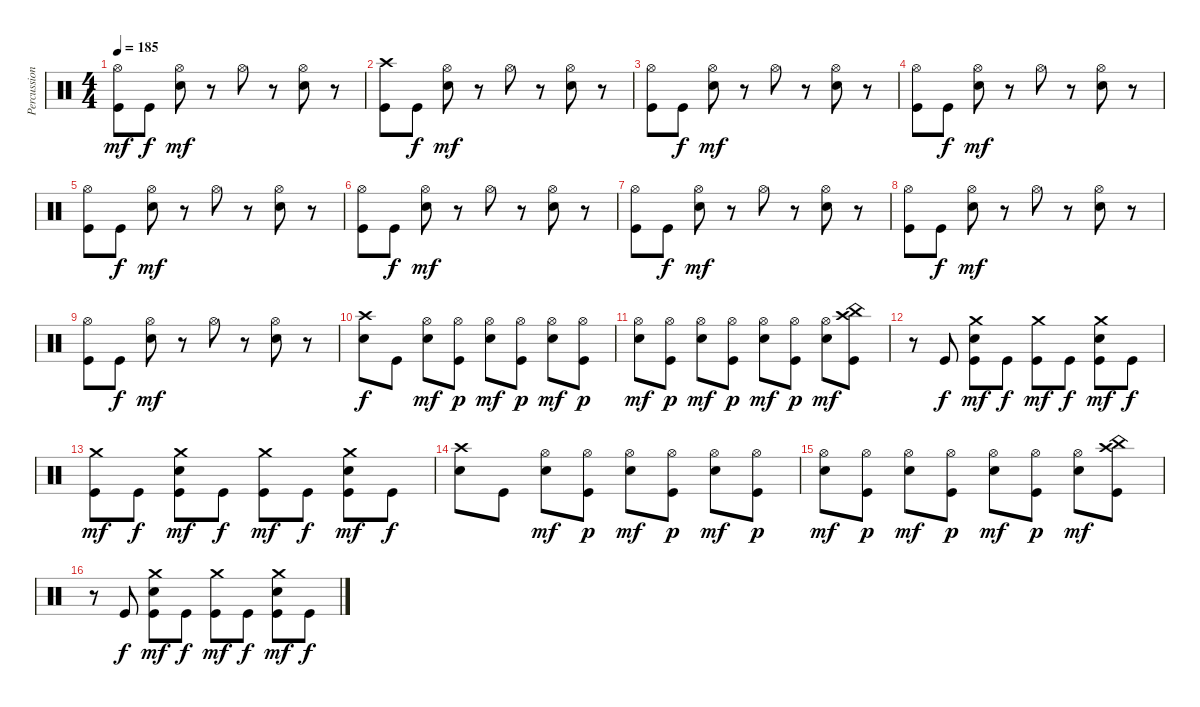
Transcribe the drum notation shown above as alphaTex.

\track ("Percussions" "Percussion") {instrument percussion}
\staff {score}
\articulation defaults
\ts (4 4)
\tempo 185
\clef neutral
\ks c
("Kick (hit)" "Hi-Hat (open)").8{dy mf} "Kick (hit)".8{dy f} ("Electric Snare (hit)" "Hi-Hat (open)").8{dy mf} r.8 "Hi-Hat (open)".8 r.8 ("Electric Snare (hit)" "Hi-Hat (open)").8 r.8 |
("Kick (hit)" "Crash high (hit)").8 "Kick (hit)".8{dy f} ("Electric Snare (hit)" "Hi-Hat (open)").8{dy mf} r.8 "Hi-Hat (open)".8 r.8 ("Electric Snare (hit)" "Hi-Hat (open)").8 r.8 |
("Kick (hit)" "Hi-Hat (open)").8 "Kick (hit)".8{dy f} ("Electric Snare (hit)" "Hi-Hat (open)").8{dy mf} r.8 "Hi-Hat (open)".8 r.8 ("Electric Snare (hit)" "Hi-Hat (open)").8 r.8 |
("Kick (hit)" "Hi-Hat (open)").8 "Kick (hit)".8{dy f} ("Electric Snare (hit)" "Hi-Hat (open)").8{dy mf} r.8 "Hi-Hat (open)".8 r.8 ("Electric Snare (hit)" "Hi-Hat (open)").8 r.8 |
("Kick (hit)" "Hi-Hat (open)").8 "Kick (hit)".8{dy f} ("Electric Snare (hit)" "Hi-Hat (open)").8{dy mf} r.8 "Hi-Hat (open)".8 r.8 ("Electric Snare (hit)" "Hi-Hat (open)").8 r.8 |
("Kick (hit)" "Hi-Hat (open)").8 "Kick (hit)".8{dy f} ("Electric Snare (hit)" "Hi-Hat (open)").8{dy mf} r.8 "Hi-Hat (open)".8 r.8 ("Electric Snare (hit)" "Hi-Hat (open)").8 r.8 |
("Kick (hit)" "Hi-Hat (open)").8 "Kick (hit)".8{dy f} ("Electric Snare (hit)" "Hi-Hat (open)").8{dy mf} r.8 "Hi-Hat (open)".8 r.8 ("Electric Snare (hit)" "Hi-Hat (open)").8 r.8 |
("Kick (hit)" "Hi-Hat (open)").8 "Kick (hit)".8{dy f} ("Electric Snare (hit)" "Hi-Hat (open)").8{dy mf} r.8 "Hi-Hat (open)".8 r.8 ("Electric Snare (hit)" "Hi-Hat (open)").8 r.8 |
("Kick (hit)" "Hi-Hat (open)").8 "Kick (hit)".8{dy f} ("Electric Snare (hit)" "Hi-Hat (open)").8{dy mf} r.8 "Hi-Hat (open)".8 r.8 ("Electric Snare (hit)" "Hi-Hat (open)").8 r.8 |
("Electric Snare (hit)" "Crash high (hit)").8{dy f} "Kick (hit)".8 ("Electric Snare (hit)" "Hi-Hat (open)").8{dy mf} ("Kick (hit)" "Hi-Hat (open)").8{dy p} ("Electric Snare (hit)" "Hi-Hat (open)").8{dy mf} ("Kick (hit)" "Hi-Hat (open)").8{dy p} ("Electric Snare (hit)" "Hi-Hat (open)").8{dy mf} ("Kick (hit)" "Hi-Hat (open)").8{dy p} |
("Electric Snare (hit)" "Hi-Hat (open)").8{dy mf} ("Kick (hit)" "Hi-Hat (open)").8{dy p} ("Electric Snare (hit)" "Hi-Hat (open)").8{dy mf} ("Kick (hit)" "Hi-Hat (open)").8{dy p} ("Electric Snare (hit)" "Hi-Hat (open)").8{dy mf} ("Kick (hit)" "Hi-Hat (open)").8{dy p} ("Electric Snare (hit)" "Hi-Hat (open)").8{dy mf} ("Kick (hit)" "China (hit)" "Crash high (hit)").8 |
r.8 "Kick (hit)".8{dy f} ("Kick (hit)" "Electric Snare (hit)" "Crash medium (hit)").8{dy mf} "Kick (hit)".8{dy f} ("Kick (hit)" "Crash medium (hit)").8{dy mf} "Kick (hit)".8{dy f} ("Kick (hit)" "Electric Snare (hit)" "Crash medium (hit)").8{dy mf} "Kick (hit)".8{dy f} |
("Kick (hit)" "Crash medium (hit)").8{dy mf} "Kick (hit)".8{dy f} ("Kick (hit)" "Electric Snare (hit)" "Crash medium (hit)").8{dy mf} "Kick (hit)".8{dy f} ("Kick (hit)" "Crash medium (hit)").8{dy mf} "Kick (hit)".8{dy f} ("Kick (hit)" "Electric Snare (hit)" "Crash medium (hit)").8{dy mf} "Kick (hit)".8{dy f} |
("Electric Snare (hit)" "Crash high (hit)").8 "Kick (hit)".8 ("Electric Snare (hit)" "Hi-Hat (open)").8{dy mf} ("Kick (hit)" "Hi-Hat (open)").8{dy p} ("Electric Snare (hit)" "Hi-Hat (open)").8{dy mf} ("Kick (hit)" "Hi-Hat (open)").8{dy p} ("Electric Snare (hit)" "Hi-Hat (open)").8{dy mf} ("Kick (hit)" "Hi-Hat (open)").8{dy p} |
("Electric Snare (hit)" "Hi-Hat (open)").8{dy mf} ("Kick (hit)" "Hi-Hat (open)").8{dy p} ("Electric Snare (hit)" "Hi-Hat (open)").8{dy mf} ("Kick (hit)" "Hi-Hat (open)").8{dy p} ("Electric Snare (hit)" "Hi-Hat (open)").8{dy mf} ("Kick (hit)" "Hi-Hat (open)").8{dy p} ("Electric Snare (hit)" "Hi-Hat (open)").8{dy mf} ("Kick (hit)" "China (hit)" "Crash high (hit)").8 |
r.8 "Kick (hit)".8{dy f} ("Kick (hit)" "Electric Snare (hit)" "Crash medium (hit)").8{dy mf} "Kick (hit)".8{dy f} ("Kick (hit)" "Crash medium (hit)").8{dy mf} "Kick (hit)".8{dy f} ("Kick (hit)" "Electric Snare (hit)" "Crash medium (hit)").8{dy mf} "Kick (hit)".8{dy f}
